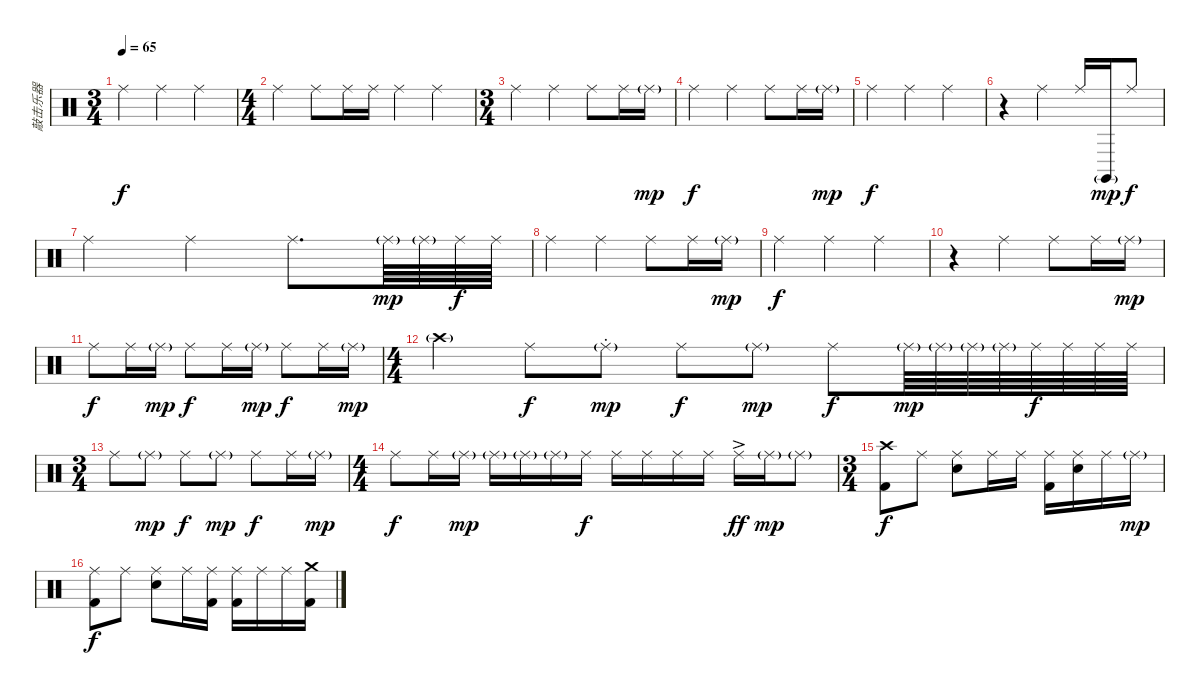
\track ("敲击乐器" "敲击乐器") {instrument percussion}
\staff {score}
\articulation defaults
\ts (3 4)
\tempo 65
\clef neutral
\ks c "Ride (middle)".4{dy f} "Ride (middle)".4 "Ride (middle)".4
|
\ts (4 4)
"Ride (middle)".4 "Ride (middle)".8 "Ride (middle)".16 "Ride (middle)".16 "Ride (middle)".4 "Ride (middle)".4 |
\ts (3 4)
"Ride (middle)".4 "Ride (middle)".4 "Ride (middle)".8 "Ride (middle)".16 "Ride (middle)"{g}.16{dy mp} |
"Ride (middle)".4{dy f} "Ride (middle)".4 "Ride (middle)".8 "Ride (middle)".16 "Ride (middle)"{g}.16{dy mp} |
"Ride (middle)".4{dy f} "Ride (middle)".4 "Ride (middle)".4 |
r.4 "Ride (middle)".4 "Ride (middle)".16 "Claves (hit)"{g}.16{dy mp} "Ride (middle)".8{dy f} |
"Ride (middle)".4 "Ride (middle)".4 "Ride (middle)".8{d} "Ride (middle)"{g}.64{dy mp} "Ride (middle)"{g}.64 "Ride (middle)".64{dy f} "Ride (middle)".64 |
"Ride (middle)".4 "Ride (middle)".4 "Ride (middle)".8 "Ride (middle)".16 "Ride (middle)"{g}.16{dy mp} |
"Ride (middle)".4{dy f} "Ride (middle)".4 "Ride (middle)".4 |
r.4 "Ride (middle)".4 "Ride (middle)".8 "Ride (middle)".16 "Ride (middle)"{g}.16{dy mp} |
"Ride (middle)".8{dy f} "Ride (middle)".16 "Ride (middle)"{g}.16{dy mp} "Ride (middle)".8{dy f} "Ride (middle)".16 "Ride (middle)"{g}.16{dy mp} "Ride (middle)".8{dy f} "Ride (middle)".16 "Ride (middle)"{g}.16{dy mp} |
\ts (4 4)
"Crash high (hit)"{g}.4 "Ride (middle)".8{dy f} "Ride (middle)"{g st}.8{dy mp} "Ride (middle)".8{dy f} "Ride (middle)"{g}.8{dy mp} "Ride (middle)".8{dy f} "Ride (middle)"{g}.64{dy mp} "Ride (middle)"{g}.64 "Ride (middle)"{g}.64 "Ride (middle)"{g}.64 "Ride (middle)".64{dy f} "Ride (middle)".64 "Ride (middle)".64 "Ride (middle)".64 |
\ts (3 4)
"Ride (middle)".8 "Ride (middle)"{g}.8{dy mp} "Ride (middle)".8{dy f} "Ride (middle)"{g}.8{dy mp} "Ride (middle)".8{dy f} "Ride (middle)".16 "Ride (middle)"{g}.16{dy mp} |
\ts (4 4)
"Ride (middle)".8{dy f} "Ride (middle)".16 "Ride (middle)"{g}.16{dy mp} "Ride (middle)"{g}.16 "Ride (middle)"{g}.16 "Ride (middle)"{g}.16 "Ride (middle)".16{dy f} "Ride (middle)".16 "Ride (middle)".16 "Ride (middle)".16 "Ride (middle)".16 "Ride (middle)"{ac}.16{dy ff} "Ride (middle)"{g}.16{dy mp} "Ride (middle)"{g}.8 |
\ts (3 4)
("Crash high (hit)" "Kick (hit) 2").8{dy f} "Ride (middle)".8 ("Ride (middle)" "Snare (hit) 2").8 "Ride (middle)".16 "Ride (middle)".16 ("Ride (middle)" "Kick (hit) 2").16 ("Ride (middle)" "Snare (hit) 2").16 "Ride (middle)".16 "Ride (middle)"{g}.16{dy mp} |
("Ride (middle)" "Kick (hit) 2").8{dy f} "Ride (middle)".8 ("Ride (middle)" "Snare (hit) 2").8 "Ride (middle)".16 ("Ride (middle)" "Kick (hit) 2").16 ("Ride (middle)" "Kick (hit) 2").16 "Ride (middle)".16 "Ride (middle)".16 ("Crash medium (hit)" "Kick (hit) 2").16
